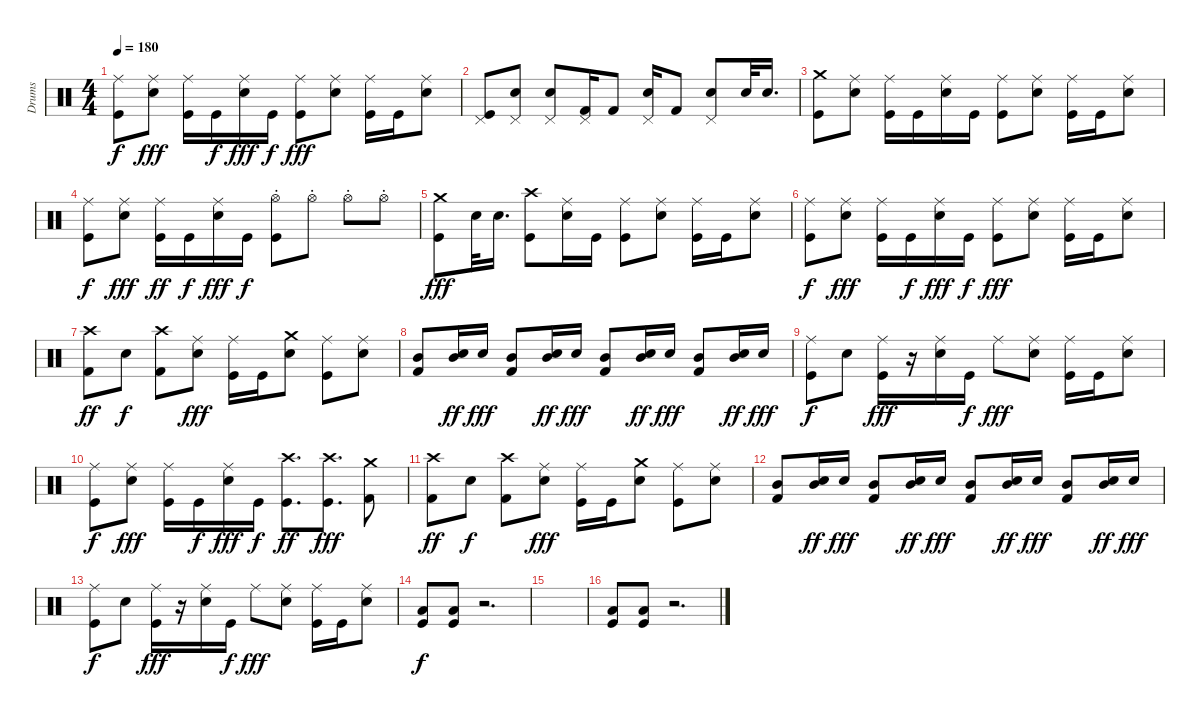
\track ("Drums" "Drums") {instrument percussion}
\staff {score}
\articulation defaults
\ts (4 4)
\tempo 180
\clef neutral
\ks c
("Ride (middle)" "Kick (hit)").8{dy f} ("Ride (middle)" "Snare (hit) 2").8{dy fff} ("Ride (middle)" "Kick (hit)").16 "Kick (hit)".16{dy f} ("Ride (middle)" "Snare (hit) 2").16{dy fff} "Kick (hit)".16{dy f} ("Ride (middle)" "Kick (hit)").8{dy fff} ("Ride (middle)" "Snare (hit) 2").8 ("Ride (middle)" "Kick (hit)").16 "Kick (hit)".16 ("Ride (middle)" "Snare (hit) 2").8 |
("Pedal Hi-Hat (hit)" "Kick (hit)").8 ("Pedal Hi-Hat (hit)" "Snare (hit) 2").8 ("Pedal Hi-Hat (hit)" "Snare (hit) 2").8 ("Pedal Hi-Hat (hit)" "Kick (hit) 2").16 "Kick (hit) 2".8 ("Pedal Hi-Hat (hit)" "Snare (hit) 2").16 "Kick (hit) 2".8 ("Pedal Hi-Hat (hit)" "Snare (hit) 2").8 "Snare (hit) 2".32 "Snare (hit) 2".16{d} |
("Crash medium (hit)" "Kick (hit)").8 ("Ride (middle)" "Snare (hit) 2").8 ("Ride (middle)" "Kick (hit)").16 "Kick (hit)".16 ("Ride (middle)" "Snare (hit) 2").16 "Kick (hit)".16 ("Ride (middle)" "Kick (hit)").8 ("Ride (middle)" "Snare (hit) 2").8 ("Ride (middle)" "Kick (hit)").16 "Kick (hit)".16 ("Ride (middle)" "Snare (hit) 2").8 |
("Ride (middle)" "Kick (hit)").8{dy f} ("Ride (middle)" "Snare (hit) 2").8{dy fff} ("Ride (middle)" "Kick (hit)").16{dy ff} "Kick (hit)".16{dy f} ("Ride (middle)" "Snare (hit) 2").16{dy fff} "Kick (hit)".16{dy f} ("Hi-Hat (open)"{st} "Kick (hit)").8 "Hi-Hat (open)"{st}.8 "Hi-Hat (open)"{st}.8 "Hi-Hat (open)"{st}.8 |
("Crash medium (hit)" "Kick (hit)").8{dy fff} "Snare (hit) 2".32 "Snare (hit) 2".16{d} ("Crash high (hit)" "Kick (hit)").8 ("Ride (middle)" "Snare (hit) 2").16 "Kick (hit)".16 ("Ride (middle)" "Kick (hit)").8 ("Ride (middle)" "Snare (hit) 2").8 ("Ride (middle)" "Kick (hit)").16 "Kick (hit)".16 ("Ride (middle)" "Snare (hit) 2").8 |
("Ride (middle)" "Kick (hit)").8{dy f} ("Ride (middle)" "Snare (hit) 2").8{dy fff} ("Ride (middle)" "Kick (hit)").16 "Kick (hit)".16{dy f} ("Ride (middle)" "Snare (hit) 2").16{dy fff} "Kick (hit)".16{dy f} ("Ride (middle)" "Kick (hit)").8{dy fff} ("Ride (middle)" "Snare (hit) 2").8 ("Ride (middle)" "Kick (hit)").16 "Kick (hit)".16 ("Ride (middle)" "Snare (hit) 2").8 |
("Crash high (hit)" "Kick (hit) 2").8{dy ff} "Snare (hit) 2".8{dy f} ("Crash high (hit)" "Kick (hit) 2").8 ("Ride (middle)" "Snare (hit) 2").8{dy fff} ("Ride (middle)" "Kick (hit)").16 "Kick (hit)".16 ("Crash medium (hit)" "Snare (hit) 2").8 ("Ride (middle)" "Kick (hit)").8 ("Ride (middle)" "Snare (hit) 2").8 |
("Mid Tom (hit)" "Kick (hit) 2").8 ("Snare (hit) 2" "Mid Tom (hit)").16{dy ff} "Snare (hit) 2".16{dy fff} ("Mid Tom (hit)" "Kick (hit) 2").8 ("Snare (hit) 2" "Mid Tom (hit)").16{dy ff} "Snare (hit) 2".16{dy fff} ("Mid Tom (hit)" "Kick (hit) 2").8 ("Snare (hit) 2" "Mid Tom (hit)").16{dy ff} "Snare (hit) 2".16{dy fff} ("Mid Tom (hit)" "Kick (hit) 2").8 ("Snare (hit) 2" "Mid Tom (hit)").16{dy ff} "Snare (hit) 2".16{dy fff} |
("Ride (middle)" "Kick (hit)").8{dy f} "Snare (hit) 2".8 ("Ride (middle)" "Kick (hit)").16{dy fff} r.16 ("Ride (middle)" "Snare (hit) 2").16 "Kick (hit)".16{dy f} "Ride (middle)".8{dy fff} ("Ride (middle)" "Snare (hit) 2").8 ("Ride (middle)" "Kick (hit)").16 "Kick (hit)".16 ("Ride (middle)" "Snare (hit) 2").8 |
("Ride (middle)" "Kick (hit)").8{dy f} ("Ride (middle)" "Snare (hit) 2").8{dy fff} ("Ride (middle)" "Kick (hit)").16 "Kick (hit)".16{dy f} ("Ride (middle)" "Snare (hit) 2").16{dy fff} "Kick (hit)".16{dy f} ("Crash high (hit)" "Kick (hit)").8{d dy ff} ("Crash high (hit)" "Kick (hit)").8{d dy fff} ("Crash medium (hit)" "Kick (hit) 2").8 |
("Crash high (hit)" "Kick (hit) 2").8{dy ff} "Snare (hit) 2".8{dy f} ("Crash high (hit)" "Kick (hit) 2").8 ("Ride (middle)" "Snare (hit) 2").8{dy fff} ("Ride (middle)" "Kick (hit)").16 "Kick (hit)".16 ("Crash medium (hit)" "Snare (hit) 2").8 ("Ride (middle)" "Kick (hit)").8 ("Ride (middle)" "Snare (hit) 2").8 |
("Mid Tom (hit)" "Kick (hit) 2").8 ("Snare (hit) 2" "Mid Tom (hit)").16{dy ff} "Snare (hit) 2".16{dy fff} ("Mid Tom (hit)" "Kick (hit) 2").8 ("Snare (hit) 2" "Mid Tom (hit)").16{dy ff} "Snare (hit) 2".16{dy fff} ("Mid Tom (hit)" "Kick (hit) 2").8 ("Snare (hit) 2" "Mid Tom (hit)").16{dy ff} "Snare (hit) 2".16{dy fff} ("Mid Tom (hit)" "Kick (hit) 2").8 ("Snare (hit) 2" "Mid Tom (hit)").16{dy ff} "Snare (hit) 2".16{dy fff} |
("Ride (middle)" "Kick (hit)").8{dy f} "Snare (hit) 2".8 ("Ride (middle)" "Kick (hit)").16{dy fff} r.16 ("Ride (middle)" "Snare (hit) 2").16 "Kick (hit)".16{dy f} "Ride (middle)".8{dy fff} ("Ride (middle)" "Snare (hit) 2").8 ("Ride (middle)" "Kick (hit)").16 "Kick (hit)".16 ("Ride (middle)" "Snare (hit) 2").8 |
("Low Tom (hit)" "Kick (hit)").8{dy f} ("Low Tom (hit)" "Kick (hit)").8 r.2{d} |
|
("Low Tom (hit)" "Kick (hit)").8 ("Low Tom (hit)" "Kick (hit)").8 r.2{d}
